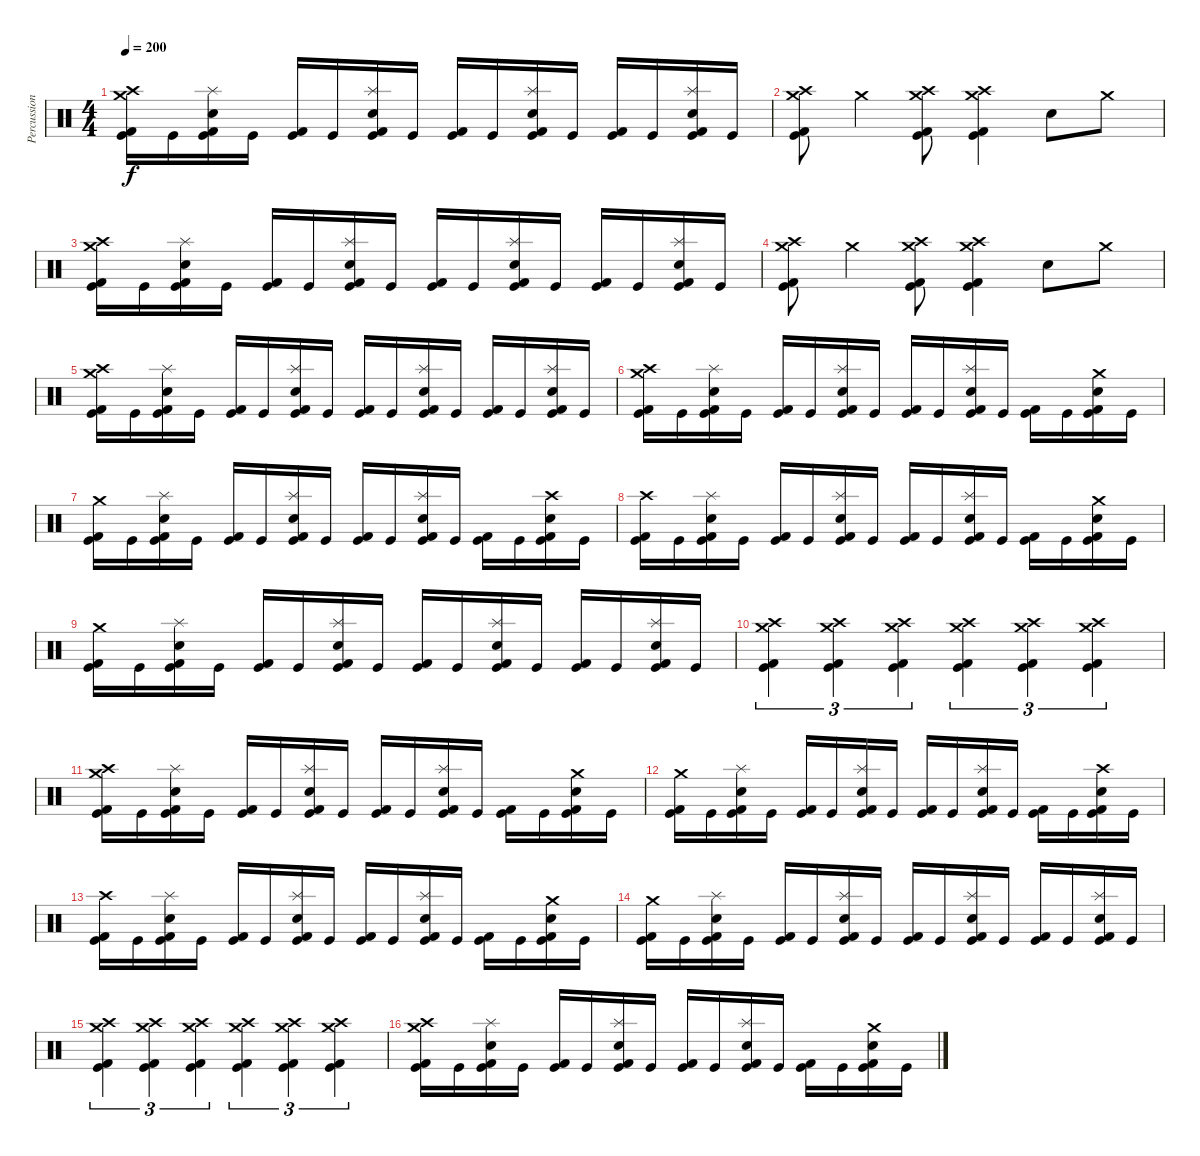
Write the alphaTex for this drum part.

\track ("Percussion" "Percussion") {instrument percussion}
\staff {score}
\articulation defaults
\ts (4 4)
\tempo 200
\clef neutral
\ks c
("Crash high (hit)" "Crash medium (hit)" "Kick (hit) 2" "Kick (hit)").16{dy f} "Kick (hit)".16 ("Splash (hit)" "Snare (hit) 2" "Kick (hit) 2" "Kick (hit)").16 "Kick (hit)".16 ("Kick (hit) 2" "Kick (hit)").16 "Kick (hit)".16 ("Splash (hit)" "Snare (hit) 2" "Kick (hit) 2" "Kick (hit)").16 "Kick (hit)".16 ("Kick (hit) 2" "Kick (hit)").16 "Kick (hit)".16 ("Splash (hit)" "Snare (hit) 2" "Kick (hit) 2" "Kick (hit)").16 "Kick (hit)".16 ("Kick (hit) 2" "Kick (hit)").16 "Kick (hit)".16 ("Splash (hit)" "Snare (hit) 2" "Kick (hit) 2" "Kick (hit)").16 "Kick (hit)".16 |
("Crash high (hit)" "Crash medium (hit)" "Kick (hit) 2" "Kick (hit)").8 "Crash medium (hit)".4 ("Crash high (hit)" "Crash medium (hit)" "Kick (hit) 2" "Kick (hit)").8 ("Crash high (hit)" "Crash medium (hit)" "Kick (hit) 2" "Kick (hit)").4 "Snare (hit) 2".8 "Crash medium (hit)".8 |
("Crash high (hit)" "Crash medium (hit)" "Kick (hit) 2" "Kick (hit)").16 "Kick (hit)".16 ("Splash (hit)" "Snare (hit) 2" "Kick (hit) 2" "Kick (hit)").16 "Kick (hit)".16 ("Kick (hit) 2" "Kick (hit)").16 "Kick (hit)".16 ("Splash (hit)" "Snare (hit) 2" "Kick (hit) 2" "Kick (hit)").16 "Kick (hit)".16 ("Kick (hit) 2" "Kick (hit)").16 "Kick (hit)".16 ("Splash (hit)" "Snare (hit) 2" "Kick (hit) 2" "Kick (hit)").16 "Kick (hit)".16 ("Kick (hit) 2" "Kick (hit)").16 "Kick (hit)".16 ("Splash (hit)" "Snare (hit) 2" "Kick (hit) 2" "Kick (hit)").16 "Kick (hit)".16 |
("Crash high (hit)" "Crash medium (hit)" "Kick (hit) 2" "Kick (hit)").8 "Crash medium (hit)".4 ("Crash high (hit)" "Crash medium (hit)" "Kick (hit) 2" "Kick (hit)").8 ("Crash high (hit)" "Crash medium (hit)" "Kick (hit) 2" "Kick (hit)").4 "Snare (hit) 2".8 "Crash medium (hit)".8 |
("Crash high (hit)" "Crash medium (hit)" "Kick (hit) 2" "Kick (hit)").16 "Kick (hit)".16 ("Splash (hit)" "Snare (hit) 2" "Kick (hit) 2" "Kick (hit)").16 "Kick (hit)".16 ("Kick (hit) 2" "Kick (hit)").16 "Kick (hit)".16 ("Splash (hit)" "Snare (hit) 2" "Kick (hit) 2" "Kick (hit)").16 "Kick (hit)".16 ("Kick (hit) 2" "Kick (hit)").16 "Kick (hit)".16 ("Splash (hit)" "Snare (hit) 2" "Kick (hit) 2" "Kick (hit)").16 "Kick (hit)".16 ("Kick (hit) 2" "Kick (hit)").16 "Kick (hit)".16 ("Splash (hit)" "Snare (hit) 2" "Kick (hit) 2" "Kick (hit)").16 "Kick (hit)".16 |
("Crash high (hit)" "Crash medium (hit)" "Kick (hit) 2" "Kick (hit)").16 "Kick (hit)".16 ("Splash (hit)" "Snare (hit) 2" "Kick (hit) 2" "Kick (hit)").16 "Kick (hit)".16 ("Kick (hit) 2" "Kick (hit)").16 "Kick (hit)".16 ("Splash (hit)" "Snare (hit) 2" "Kick (hit) 2" "Kick (hit)").16 "Kick (hit)".16 ("Kick (hit) 2" "Kick (hit)").16 "Kick (hit)".16 ("Splash (hit)" "Snare (hit) 2" "Kick (hit) 2" "Kick (hit)").16 "Kick (hit)".16 ("Kick (hit) 2" "Kick (hit)").16 "Kick (hit)".16 ("Crash medium (hit)" "Snare (hit) 2" "Kick (hit) 2" "Kick (hit)").16 "Kick (hit)".16 |
("Crash medium (hit)" "Kick (hit) 2" "Kick (hit)").16 "Kick (hit)".16 ("Splash (hit)" "Snare (hit) 2" "Kick (hit) 2" "Kick (hit)").16 "Kick (hit)".16 ("Kick (hit) 2" "Kick (hit)").16 "Kick (hit)".16 ("Splash (hit)" "Snare (hit) 2" "Kick (hit) 2" "Kick (hit)").16 "Kick (hit)".16 ("Kick (hit) 2" "Kick (hit)").16 "Kick (hit)".16 ("Splash (hit)" "Snare (hit) 2" "Kick (hit) 2" "Kick (hit)").16 "Kick (hit)".16 ("Kick (hit) 2" "Kick (hit)").16 "Kick (hit)".16 ("Crash high (hit)" "Snare (hit) 2" "Kick (hit) 2" "Kick (hit)").16 "Kick (hit)".16 |
("Crash high (hit)" "Kick (hit) 2" "Kick (hit)").16 "Kick (hit)".16 ("Splash (hit)" "Snare (hit) 2" "Kick (hit) 2" "Kick (hit)").16 "Kick (hit)".16 ("Kick (hit) 2" "Kick (hit)").16 "Kick (hit)".16 ("Splash (hit)" "Snare (hit) 2" "Kick (hit) 2" "Kick (hit)").16 "Kick (hit)".16 ("Kick (hit) 2" "Kick (hit)").16 "Kick (hit)".16 ("Splash (hit)" "Snare (hit) 2" "Kick (hit) 2" "Kick (hit)").16 "Kick (hit)".16 ("Kick (hit) 2" "Kick (hit)").16 "Kick (hit)".16 ("Crash medium (hit)" "Snare (hit) 2" "Kick (hit) 2" "Kick (hit)").16 "Kick (hit)".16 |
("Crash medium (hit)" "Kick (hit) 2" "Kick (hit)").16 "Kick (hit)".16 ("Splash (hit)" "Snare (hit) 2" "Kick (hit) 2" "Kick (hit)").16 "Kick (hit)".16 ("Kick (hit) 2" "Kick (hit)").16 "Kick (hit)".16 ("Splash (hit)" "Snare (hit) 2" "Kick (hit) 2" "Kick (hit)").16 "Kick (hit)".16 ("Kick (hit) 2" "Kick (hit)").16 "Kick (hit)".16 ("Splash (hit)" "Snare (hit) 2" "Kick (hit) 2" "Kick (hit)").16 "Kick (hit)".16 ("Kick (hit) 2" "Kick (hit)").16 "Kick (hit)".16 ("Splash (hit)" "Snare (hit) 2" "Kick (hit) 2" "Kick (hit)").16 "Kick (hit)".16 |
("Crash high (hit)" "Crash medium (hit)" "Kick (hit) 2" "Kick (hit)").4{tu (3 2)} ("Crash high (hit)" "Crash medium (hit)" "Kick (hit) 2" "Kick (hit)").4{tu (3 2)} ("Crash high (hit)" "Crash medium (hit)" "Kick (hit) 2" "Kick (hit)").4{tu (3 2)} ("Crash high (hit)" "Crash medium (hit)" "Kick (hit) 2" "Kick (hit)").4{tu (3 2)} ("Crash high (hit)" "Crash medium (hit)" "Kick (hit) 2" "Kick (hit)").4{tu (3 2)} ("Crash high (hit)" "Crash medium (hit)" "Kick (hit) 2" "Kick (hit)").4{tu (3 2)} |
("Crash high (hit)" "Crash medium (hit)" "Kick (hit) 2" "Kick (hit)").16 "Kick (hit)".16 ("Splash (hit)" "Snare (hit) 2" "Kick (hit) 2" "Kick (hit)").16 "Kick (hit)".16 ("Kick (hit) 2" "Kick (hit)").16 "Kick (hit)".16 ("Splash (hit)" "Snare (hit) 2" "Kick (hit) 2" "Kick (hit)").16 "Kick (hit)".16 ("Kick (hit) 2" "Kick (hit)").16 "Kick (hit)".16 ("Splash (hit)" "Snare (hit) 2" "Kick (hit) 2" "Kick (hit)").16 "Kick (hit)".16 ("Kick (hit) 2" "Kick (hit)").16 "Kick (hit)".16 ("Crash medium (hit)" "Snare (hit) 2" "Kick (hit) 2" "Kick (hit)").16 "Kick (hit)".16 |
("Crash medium (hit)" "Kick (hit) 2" "Kick (hit)").16 "Kick (hit)".16 ("Splash (hit)" "Snare (hit) 2" "Kick (hit) 2" "Kick (hit)").16 "Kick (hit)".16 ("Kick (hit) 2" "Kick (hit)").16 "Kick (hit)".16 ("Splash (hit)" "Snare (hit) 2" "Kick (hit) 2" "Kick (hit)").16 "Kick (hit)".16 ("Kick (hit) 2" "Kick (hit)").16 "Kick (hit)".16 ("Splash (hit)" "Snare (hit) 2" "Kick (hit) 2" "Kick (hit)").16 "Kick (hit)".16 ("Kick (hit) 2" "Kick (hit)").16 "Kick (hit)".16 ("Crash high (hit)" "Snare (hit) 2" "Kick (hit) 2" "Kick (hit)").16 "Kick (hit)".16 |
("Crash high (hit)" "Kick (hit) 2" "Kick (hit)").16 "Kick (hit)".16 ("Splash (hit)" "Snare (hit) 2" "Kick (hit) 2" "Kick (hit)").16 "Kick (hit)".16 ("Kick (hit) 2" "Kick (hit)").16 "Kick (hit)".16 ("Splash (hit)" "Snare (hit) 2" "Kick (hit) 2" "Kick (hit)").16 "Kick (hit)".16 ("Kick (hit) 2" "Kick (hit)").16 "Kick (hit)".16 ("Splash (hit)" "Snare (hit) 2" "Kick (hit) 2" "Kick (hit)").16 "Kick (hit)".16 ("Kick (hit) 2" "Kick (hit)").16 "Kick (hit)".16 ("Crash medium (hit)" "Snare (hit) 2" "Kick (hit) 2" "Kick (hit)").16 "Kick (hit)".16 |
("Crash medium (hit)" "Kick (hit) 2" "Kick (hit)").16 "Kick (hit)".16 ("Splash (hit)" "Snare (hit) 2" "Kick (hit) 2" "Kick (hit)").16 "Kick (hit)".16 ("Kick (hit) 2" "Kick (hit)").16 "Kick (hit)".16 ("Splash (hit)" "Snare (hit) 2" "Kick (hit) 2" "Kick (hit)").16 "Kick (hit)".16 ("Kick (hit) 2" "Kick (hit)").16 "Kick (hit)".16 ("Splash (hit)" "Snare (hit) 2" "Kick (hit) 2" "Kick (hit)").16 "Kick (hit)".16 ("Kick (hit) 2" "Kick (hit)").16 "Kick (hit)".16 ("Splash (hit)" "Snare (hit) 2" "Kick (hit) 2" "Kick (hit)").16 "Kick (hit)".16 |
("Crash high (hit)" "Crash medium (hit)" "Kick (hit) 2" "Kick (hit)").4{tu (3 2)} ("Crash high (hit)" "Crash medium (hit)" "Kick (hit) 2" "Kick (hit)").4{tu (3 2)} ("Crash high (hit)" "Crash medium (hit)" "Kick (hit) 2" "Kick (hit)").4{tu (3 2)} ("Crash high (hit)" "Crash medium (hit)" "Kick (hit) 2" "Kick (hit)").4{tu (3 2)} ("Crash high (hit)" "Crash medium (hit)" "Kick (hit) 2" "Kick (hit)").4{tu (3 2)} ("Crash high (hit)" "Crash medium (hit)" "Kick (hit) 2" "Kick (hit)").4{tu (3 2)} |
("Crash high (hit)" "Crash medium (hit)" "Kick (hit) 2" "Kick (hit)").16 "Kick (hit)".16 ("Splash (hit)" "Snare (hit) 2" "Kick (hit) 2" "Kick (hit)").16 "Kick (hit)".16 ("Kick (hit) 2" "Kick (hit)").16 "Kick (hit)".16 ("Splash (hit)" "Snare (hit) 2" "Kick (hit) 2" "Kick (hit)").16 "Kick (hit)".16 ("Kick (hit) 2" "Kick (hit)").16 "Kick (hit)".16 ("Splash (hit)" "Snare (hit) 2" "Kick (hit) 2" "Kick (hit)").16 "Kick (hit)".16 ("Kick (hit) 2" "Kick (hit)").16 "Kick (hit)".16 ("Crash medium (hit)" "Snare (hit) 2" "Kick (hit) 2" "Kick (hit)").16 "Kick (hit)".16
